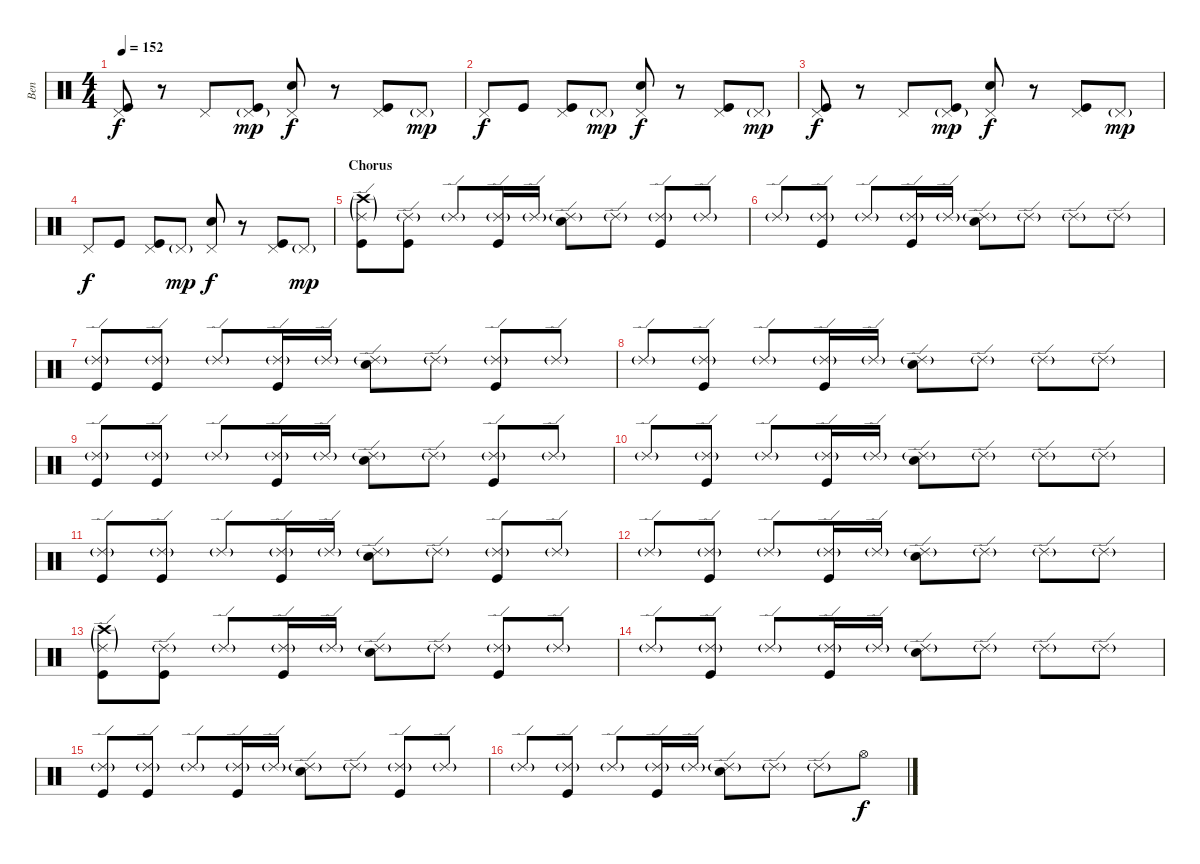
\track ("Ben" "Ben") {instrument percussion}
\staff {score}
\articulation defaults
\ts (4 4)
\tempo 152
\clef neutral
\ks c
("Pedal Hi-Hat (hit)" "Kick (hit)").8{dy f} r.8 "Pedal Hi-Hat (hit)".8 ("Pedal Hi-Hat (hit)"{g} "Kick (hit)").8{dy mp} ("Pedal Hi-Hat (hit)" "Electric Snare (hit)").8{dy f} r.8 ("Pedal Hi-Hat (hit)" "Kick (hit)").8 "Pedal Hi-Hat (hit)"{g}.8{dy mp} |
"Pedal Hi-Hat (hit)".8{dy f} "Kick (hit)".8 ("Pedal Hi-Hat (hit)" "Kick (hit)").8 "Pedal Hi-Hat (hit)"{g}.8{dy mp} ("Pedal Hi-Hat (hit)" "Electric Snare (hit)").8{dy f} r.8 ("Pedal Hi-Hat (hit)" "Kick (hit)").8 "Pedal Hi-Hat (hit)"{g}.8{dy mp} |
("Pedal Hi-Hat (hit)" "Kick (hit)").8{dy f} r.8 "Pedal Hi-Hat (hit)".8 ("Pedal Hi-Hat (hit)"{g} "Kick (hit)").8{dy mp} ("Pedal Hi-Hat (hit)" "Electric Snare (hit)").8{dy f} r.8 ("Pedal Hi-Hat (hit)" "Kick (hit)").8 "Pedal Hi-Hat (hit)"{g}.8{dy mp} |
"Pedal Hi-Hat (hit)".8{dy f} "Kick (hit)".8 ("Pedal Hi-Hat (hit)" "Kick (hit)").8 "Pedal Hi-Hat (hit)"{g}.8{dy mp} ("Pedal Hi-Hat (hit)" "Electric Snare (hit)").8{dy f} r.8 ("Pedal Hi-Hat (hit)" "Kick (hit)").8 "Pedal Hi-Hat (hit)"{g}.8{dy mp} |
\section ("" "Chorus")
("Ride (edge) 2"{g} "Crash high (hit)"{g} "Kick (hit)").8 ("Ride (edge) 2"{g} "Kick (hit)").8 "Ride (edge) 2"{g}.8 ("Ride (edge) 2"{g} "Kick (hit)").16 "Ride (edge) 2"{g}.16 ("Ride (edge) 2"{g} "Electric Snare (hit)").8 "Ride (edge) 2"{g}.8 ("Ride (edge) 2"{g} "Kick (hit)").8 "Ride (edge) 2"{g}.8 |
"Ride (edge) 2"{g}.8 ("Ride (edge) 2"{g} "Kick (hit)").8 "Ride (edge) 2"{g}.8 ("Ride (edge) 2"{g} "Kick (hit)").16 "Ride (edge) 2"{g}.16 ("Ride (edge) 2"{g} "Electric Snare (hit)").8 "Ride (edge) 2"{g}.8 "Ride (edge) 2"{g}.8 "Ride (edge) 2"{g}.8 |
("Ride (edge) 2"{g} "Kick (hit)").8 ("Ride (edge) 2"{g} "Kick (hit)").8 "Ride (edge) 2"{g}.8 ("Ride (edge) 2"{g} "Kick (hit)").16 "Ride (edge) 2"{g}.16 ("Ride (edge) 2"{g} "Electric Snare (hit)").8 "Ride (edge) 2"{g}.8 ("Ride (edge) 2"{g} "Kick (hit)").8 "Ride (edge) 2"{g}.8 |
"Ride (edge) 2"{g}.8 ("Ride (edge) 2"{g} "Kick (hit)").8 "Ride (edge) 2"{g}.8 ("Ride (edge) 2"{g} "Kick (hit)").16 "Ride (edge) 2"{g}.16 ("Ride (edge) 2"{g} "Electric Snare (hit)").8 "Ride (edge) 2"{g}.8 "Ride (edge) 2"{g}.8 "Ride (edge) 2"{g}.8 |
("Ride (edge) 2"{g} "Kick (hit)").8 ("Ride (edge) 2"{g} "Kick (hit)").8 "Ride (edge) 2"{g}.8 ("Ride (edge) 2"{g} "Kick (hit)").16 "Ride (edge) 2"{g}.16 ("Ride (edge) 2"{g} "Electric Snare (hit)").8 "Ride (edge) 2"{g}.8 ("Ride (edge) 2"{g} "Kick (hit)").8 "Ride (edge) 2"{g}.8 |
"Ride (edge) 2"{g}.8 ("Ride (edge) 2"{g} "Kick (hit)").8 "Ride (edge) 2"{g}.8 ("Ride (edge) 2"{g} "Kick (hit)").16 "Ride (edge) 2"{g}.16 ("Ride (edge) 2"{g} "Electric Snare (hit)").8 "Ride (edge) 2"{g}.8 "Ride (edge) 2"{g}.8 "Ride (edge) 2"{g}.8 |
("Ride (edge) 2"{g} "Kick (hit)").8 ("Ride (edge) 2"{g} "Kick (hit)").8 "Ride (edge) 2"{g}.8 ("Ride (edge) 2"{g} "Kick (hit)").16 "Ride (edge) 2"{g}.16 ("Ride (edge) 2"{g} "Electric Snare (hit)").8 "Ride (edge) 2"{g}.8 ("Ride (edge) 2"{g} "Kick (hit)").8 "Ride (edge) 2"{g}.8 |
"Ride (edge) 2"{g}.8 ("Ride (edge) 2"{g} "Kick (hit)").8 "Ride (edge) 2"{g}.8 ("Ride (edge) 2"{g} "Kick (hit)").16 "Ride (edge) 2"{g}.16 ("Ride (edge) 2"{g} "Electric Snare (hit)").8 "Ride (edge) 2"{g}.8 "Ride (edge) 2"{g}.8 "Ride (edge) 2"{g}.8 |
("Ride (edge) 2"{g} "Crash high (hit)"{g} "Kick (hit)").8 ("Ride (edge) 2"{g} "Kick (hit)").8 "Ride (edge) 2"{g}.8 ("Ride (edge) 2"{g} "Kick (hit)").16 "Ride (edge) 2"{g}.16 ("Ride (edge) 2"{g} "Electric Snare (hit)").8 "Ride (edge) 2"{g}.8 ("Ride (edge) 2"{g} "Kick (hit)").8 "Ride (edge) 2"{g}.8 |
"Ride (edge) 2"{g}.8 ("Ride (edge) 2"{g} "Kick (hit)").8 "Ride (edge) 2"{g}.8 ("Ride (edge) 2"{g} "Kick (hit)").16 "Ride (edge) 2"{g}.16 ("Ride (edge) 2"{g} "Electric Snare (hit)").8 "Ride (edge) 2"{g}.8 "Ride (edge) 2"{g}.8 "Ride (edge) 2"{g}.8 |
("Ride (edge) 2"{g} "Kick (hit)").8 ("Ride (edge) 2"{g} "Kick (hit)").8 "Ride (edge) 2"{g}.8 ("Ride (edge) 2"{g} "Kick (hit)").16 "Ride (edge) 2"{g}.16 ("Ride (edge) 2"{g} "Electric Snare (hit)").8 "Ride (edge) 2"{g}.8 ("Ride (edge) 2"{g} "Kick (hit)").8 "Ride (edge) 2"{g}.8 |
"Ride (edge) 2"{g}.8 ("Ride (edge) 2"{g} "Kick (hit)").8 "Ride (edge) 2"{g}.8 ("Ride (edge) 2"{g} "Kick (hit)").16 "Ride (edge) 2"{g}.16 ("Ride (edge) 2"{g} "Electric Snare (hit)").8 "Ride (edge) 2"{g}.8 "Ride (edge) 2"{g}.8 "Hi-Hat (open)".8{dy f}
